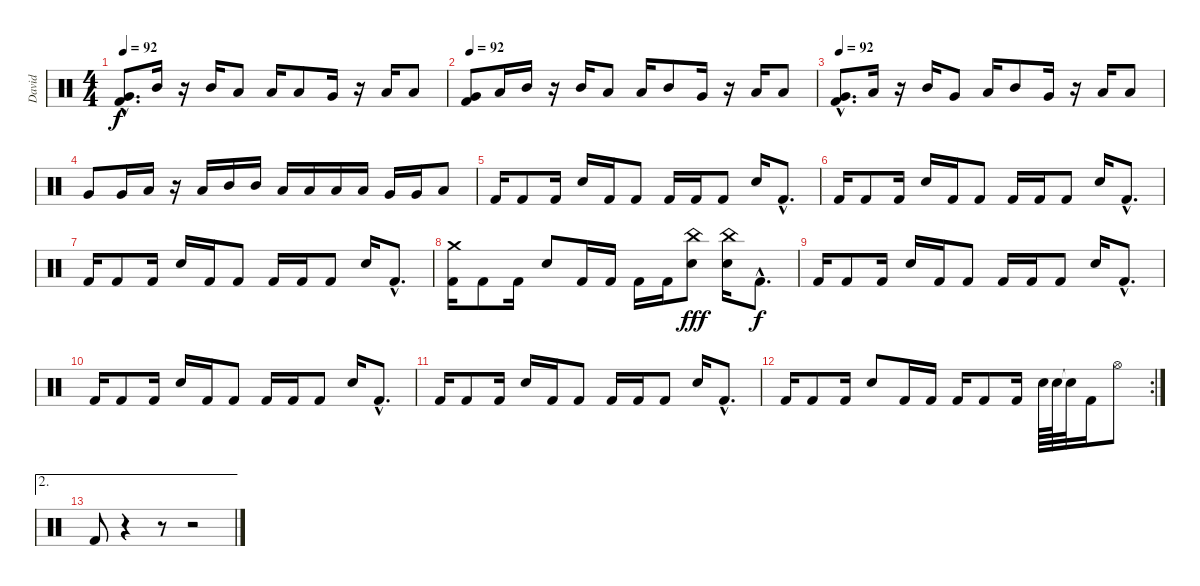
\track ("David" "David") {instrument percussion}
\staff {score}
\articulation defaults
\ts (4 4)
\tempo 92
\clef neutral
\ks c
("Very Low Tom (hit)"{hac} "Kick (hit) 2"{hac}).8{d dy f} "Mid Tom (hit)".16 r.16 "Mid Tom (hit)".16 "Low Tom (hit)".8 "Low Tom (hit)".16 "Low Tom (hit)".8 "Very Low Tom (hit)".16 r.16 "Low Tom (hit)".16 "Low Floor Tom (hit)".8 |
\tempo 92
("Very Low Tom (hit)" "Kick (hit) 2").8 "Low Tom (hit)".16 "Mid Tom (hit)".16 r.16 "Mid Tom (hit)".16 "Low Tom (hit)".8 "Low Tom (hit)".16 "Mid Tom (hit)".8 "Very Low Tom (hit)".16 r.16 "Low Tom (hit)".16 "Low Floor Tom (hit)".8 |
\tempo 92
("Very Low Tom (hit)"{hac} "Kick (hit) 2"{hac}).8{d} "Low Tom (hit)".16 r.16 "Mid Tom (hit)".16 "Very Low Tom (hit)".8 "Low Tom (hit)".16 "Mid Tom (hit)".8 "Very Low Tom (hit)".16 r.16 "Low Tom (hit)".16 "Low Floor Tom (hit)".8 |
"Very Low Tom (hit)".8 "Very Low Tom (hit)".16 "Low Tom (hit)".16 r.16 "Low Tom (hit)".16 "Mid Tom (hit)".16 "Mid Tom (hit)".16 "Low Tom (hit)".16 "Low Tom (hit)".16 "Low Tom (hit)".16 "Low Tom (hit)".16 "Very Low Tom (hit)".16 "Very Low Tom (hit)".16 "Low Floor Tom (hit)".8 |
"Kick (hit) 2".16 "Kick (hit) 2".8 "Kick (hit) 2".16 "Snare (hit) 2".16 "Kick (hit) 2".16 "Kick (hit) 2".8 "Kick (hit) 2".16 "Kick (hit) 2".16 "Kick (hit) 2".8 "Snare (hit) 2".16 "Kick (hit) 2"{hac}.8{d} |
"Kick (hit) 2".16 "Kick (hit) 2".8 "Kick (hit) 2".16 "Snare (hit) 2".16 "Kick (hit) 2".16 "Kick (hit) 2".8 "Kick (hit) 2".16 "Kick (hit) 2".16 "Kick (hit) 2".8 "Snare (hit) 2".16 "Kick (hit) 2"{hac}.8{d} |
"Kick (hit) 2".16 "Kick (hit) 2".8 "Kick (hit) 2".16 "Snare (hit) 2".16 "Kick (hit) 2".16 "Kick (hit) 2".8 "Kick (hit) 2".16 "Kick (hit) 2".16 "Kick (hit) 2".8 "Snare (hit) 2".16 "Kick (hit) 2"{hac}.8{d} |
("Crash medium (hit)" "Kick (hit) 2").16 "Kick (hit) 2".8 "Kick (hit) 2".16 "Snare (hit) 2".8 "Kick (hit) 2".16 "Kick (hit) 2".16 "Kick (hit) 2".16 "Kick (hit) 2".16 ("China (hit)" "Snare (hit) 2").8{dy fff} ("China (hit)" "Snare (hit) 2").16 "Kick (hit) 2"{hac}.8{d dy f} |
"Kick (hit) 2".16 "Kick (hit) 2".8 "Kick (hit) 2".16 "Snare (hit) 2".16 "Kick (hit) 2".16 "Kick (hit) 2".8 "Kick (hit) 2".16 "Kick (hit) 2".16 "Kick (hit) 2".8 "Snare (hit) 2".16 "Kick (hit) 2"{hac}.8{d} |
"Kick (hit) 2".16 "Kick (hit) 2".8 "Kick (hit) 2".16 "Snare (hit) 2".16 "Kick (hit) 2".16 "Kick (hit) 2".8 "Kick (hit) 2".16 "Kick (hit) 2".16 "Kick (hit) 2".8 "Snare (hit) 2".16 "Kick (hit) 2"{hac}.8{d} |
"Kick (hit) 2".16 "Kick (hit) 2".8 "Kick (hit) 2".16 "Snare (hit) 2".16 "Kick (hit) 2".16 "Kick (hit) 2".8 "Kick (hit) 2".16 "Kick (hit) 2".16 "Kick (hit) 2".8 "Snare (hit) 2".16 "Kick (hit) 2"{hac}.8{d} |
\rc 2 "Kick (hit) 2".16 "Kick (hit) 2".8 "Kick (hit) 2".16 "Snare (hit) 2".8 "Kick (hit) 2".16 "Kick (hit) 2".16 "Kick (hit) 2".16 "Kick (hit) 2".8 "Kick (hit) 2".16 "Snare (hit) 2".64 "Snare (hit) 2".64 "Snare (hit)"{t}.32 "Kick (hit) 2".16 "Hi-Hat (open)".8
|
\ae 2 "Kick (hit) 2".8
r.4 r.8 r.2
